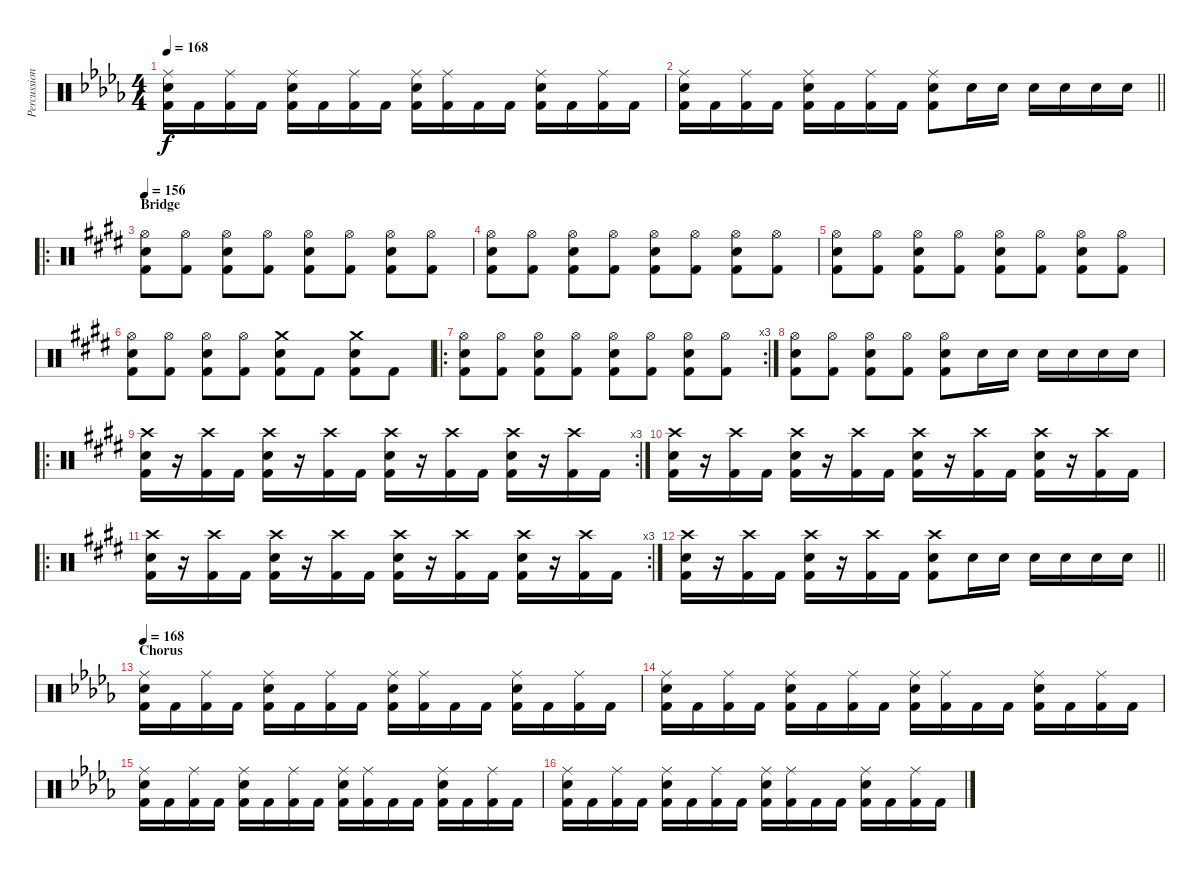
\track ("Percussion" "Percussion") {instrument percussion}
\staff {score}
\articulation defaults
\ts (4 4)
\tempo 168
\clef neutral
\ks db
("Ride (middle)" "Snare (hit) 2" "Kick (hit) 2").16{dy f} "Kick (hit) 2".16 ("Ride (middle)" "Kick (hit) 2").16 "Kick (hit) 2".16 ("Ride (middle)" "Snare (hit) 2" "Kick (hit) 2").16 "Kick (hit) 2".16 ("Ride (middle)" "Kick (hit) 2").16 "Kick (hit) 2".16 ("Ride (middle)" "Snare (hit) 2" "Kick (hit) 2").16 ("Ride (middle)" "Kick (hit) 2").16 "Kick (hit) 2".16 "Kick (hit) 2".16 ("Ride (middle)" "Snare (hit) 2" "Kick (hit) 2").16 "Kick (hit) 2".16 ("Ride (middle)" "Kick (hit) 2").16 "Kick (hit) 2".16 |
\barLineRight lightlight
("Ride (middle)" "Snare (hit) 2" "Kick (hit) 2").16 "Kick (hit) 2".16 ("Ride (middle)" "Kick (hit) 2").16 "Kick (hit) 2".16 ("Ride (middle)" "Snare (hit) 2" "Kick (hit) 2").16 "Kick (hit) 2".16 ("Ride (middle)" "Kick (hit) 2").16 "Kick (hit) 2".16 ("Ride (middle)" "Snare (hit) 2" "Kick (hit) 2").8 "Snare (hit) 2".16 "Snare (hit) 2".16 "Snare (hit) 2".16 "Snare (hit) 2".16 "Snare (hit) 2".16 "Snare (hit) 2".16 |
\ro
\section ("" "Bridge")
\tempo 156
\ks c#minor
("Hi-Hat (open)" "Snare (hit) 2" "Kick (hit) 2").8 ("Hi-Hat (open)" "Kick (hit) 2").8 ("Hi-Hat (open)" "Snare (hit) 2" "Kick (hit) 2").8 ("Hi-Hat (open)" "Kick (hit) 2").8 ("Hi-Hat (open)" "Snare (hit) 2" "Kick (hit) 2").8 ("Hi-Hat (open)" "Kick (hit) 2").8 ("Hi-Hat (open)" "Snare (hit) 2" "Kick (hit) 2").8 ("Hi-Hat (open)" "Kick (hit) 2").8 |
("Hi-Hat (open)" "Snare (hit) 2" "Kick (hit) 2").8 ("Hi-Hat (open)" "Kick (hit) 2").8 ("Hi-Hat (open)" "Snare (hit) 2" "Kick (hit) 2").8 ("Hi-Hat (open)" "Kick (hit) 2").8 ("Hi-Hat (open)" "Snare (hit) 2" "Kick (hit) 2").8 ("Hi-Hat (open)" "Kick (hit) 2").8 ("Hi-Hat (open)" "Snare (hit) 2" "Kick (hit) 2").8 ("Hi-Hat (open)" "Kick (hit) 2").8 |
("Hi-Hat (open)" "Snare (hit) 2" "Kick (hit) 2").8 ("Hi-Hat (open)" "Kick (hit) 2").8 ("Hi-Hat (open)" "Snare (hit) 2" "Kick (hit) 2").8 ("Hi-Hat (open)" "Kick (hit) 2").8 ("Hi-Hat (open)" "Snare (hit) 2" "Kick (hit) 2").8 ("Hi-Hat (open)" "Kick (hit) 2").8 ("Hi-Hat (open)" "Snare (hit) 2" "Kick (hit) 2").8 ("Hi-Hat (open)" "Kick (hit) 2").8 |
("Hi-Hat (open)" "Snare (hit) 2" "Kick (hit) 2").8 ("Hi-Hat (open)" "Kick (hit) 2").8 ("Hi-Hat (open)" "Snare (hit) 2" "Kick (hit) 2").8 ("Hi-Hat (open)" "Kick (hit) 2").8 ("Crash medium (hit)" "Snare (hit) 2" "Kick (hit) 2").8 "Kick (hit) 2".8 ("Crash medium (hit)" "Snare (hit) 2" "Kick (hit) 2").8 "Kick (hit) 2".8 |
\ro
\rc 3
("Hi-Hat (open)" "Snare (hit) 2" "Kick (hit) 2").8 ("Hi-Hat (open)" "Kick (hit) 2").8 ("Hi-Hat (open)" "Snare (hit) 2" "Kick (hit) 2").8 ("Hi-Hat (open)" "Kick (hit) 2").8 ("Hi-Hat (open)" "Snare (hit) 2" "Kick (hit) 2").8 ("Hi-Hat (open)" "Kick (hit) 2").8 ("Hi-Hat (open)" "Snare (hit) 2" "Kick (hit) 2").8 ("Hi-Hat (open)" "Kick (hit) 2").8 |
("Hi-Hat (open)" "Snare (hit) 2" "Kick (hit) 2").8 ("Hi-Hat (open)" "Kick (hit) 2").8 ("Hi-Hat (open)" "Snare (hit) 2" "Kick (hit) 2").8 ("Hi-Hat (open)" "Kick (hit) 2").8 ("Hi-Hat (open)" "Snare (hit) 2" "Kick (hit) 2").8 "Snare (hit) 2".16 "Snare (hit) 2".16 "Snare (hit) 2".16 "Snare (hit) 2".16 "Snare (hit) 2".16 "Snare (hit) 2".16 |
\ro
\rc 3
("Crash high (hit)" "Snare (hit) 2" "Kick (hit) 2").16 r.16 ("Crash high (hit)" "Kick (hit) 2").16 "Kick (hit) 2".16 ("Crash high (hit)" "Snare (hit) 2" "Kick (hit) 2").16 r.16 ("Crash high (hit)" "Kick (hit) 2").16 "Kick (hit) 2".16 ("Crash high (hit)" "Snare (hit) 2" "Kick (hit) 2").16 r.16 ("Crash high (hit)" "Kick (hit) 2").16 "Kick (hit) 2".16 ("Crash high (hit)" "Snare (hit) 2" "Kick (hit) 2").16 r.16 ("Crash high (hit)" "Kick (hit) 2").16 "Kick (hit) 2".16 |
("Crash high (hit)" "Snare (hit) 2" "Kick (hit) 2").16 r.16 ("Crash high (hit)" "Kick (hit) 2").16 "Kick (hit) 2".16 ("Crash high (hit)" "Snare (hit) 2" "Kick (hit) 2").16 r.16 ("Crash high (hit)" "Kick (hit) 2").16 "Kick (hit) 2".16 ("Crash high (hit)" "Snare (hit) 2" "Kick (hit) 2").16 r.16 ("Crash high (hit)" "Kick (hit) 2").16 "Kick (hit) 2".16 ("Crash high (hit)" "Snare (hit) 2" "Kick (hit) 2").16 r.16 ("Crash high (hit)" "Kick (hit) 2").16 "Kick (hit) 2".16 |
\ro
\rc 3
("Crash high (hit)" "Snare (hit) 2" "Kick (hit) 2").16 r.16 ("Crash high (hit)" "Kick (hit) 2").16 "Kick (hit) 2".16 ("Crash high (hit)" "Snare (hit) 2" "Kick (hit) 2").16 r.16 ("Crash high (hit)" "Kick (hit) 2").16 "Kick (hit) 2".16 ("Crash high (hit)" "Snare (hit) 2" "Kick (hit) 2").16 r.16 ("Crash high (hit)" "Kick (hit) 2").16 "Kick (hit) 2".16 ("Crash high (hit)" "Snare (hit) 2" "Kick (hit) 2").16 r.16 ("Crash high (hit)" "Kick (hit) 2").16 "Kick (hit) 2".16 |
\barLineRight lightlight
("Crash high (hit)" "Snare (hit) 2" "Kick (hit) 2").16 r.16 ("Crash high (hit)" "Kick (hit) 2").16 "Kick (hit) 2".16 ("Crash high (hit)" "Snare (hit) 2" "Kick (hit) 2").16 r.16 ("Crash high (hit)" "Kick (hit) 2").16 "Kick (hit) 2".16 ("Crash high (hit)" "Snare (hit) 2" "Kick (hit) 2").8 "Snare (hit) 2".16 "Snare (hit) 2".16 "Snare (hit) 2".16 "Snare (hit) 2".16 "Snare (hit) 2".16 "Snare (hit) 2".16 |
\section ("" "Chorus")
\tempo 168
\ks db
("Ride (middle)" "Snare (hit) 2" "Kick (hit) 2").16 "Kick (hit) 2".16 ("Ride (middle)" "Kick (hit) 2").16 "Kick (hit) 2".16 ("Ride (middle)" "Snare (hit) 2" "Kick (hit) 2").16 "Kick (hit) 2".16 ("Ride (middle)" "Kick (hit) 2").16 "Kick (hit) 2".16 ("Ride (middle)" "Snare (hit) 2" "Kick (hit) 2").16 ("Ride (middle)" "Kick (hit) 2").16 "Kick (hit) 2".16 "Kick (hit) 2".16 ("Ride (middle)" "Snare (hit) 2" "Kick (hit) 2").16 "Kick (hit) 2".16 ("Ride (middle)" "Kick (hit) 2").16 "Kick (hit) 2".16 |
("Ride (middle)" "Snare (hit) 2" "Kick (hit) 2").16 "Kick (hit) 2".16 ("Ride (middle)" "Kick (hit) 2").16 "Kick (hit) 2".16 ("Ride (middle)" "Snare (hit) 2" "Kick (hit) 2").16 "Kick (hit) 2".16 ("Ride (middle)" "Kick (hit) 2").16 "Kick (hit) 2".16 ("Ride (middle)" "Snare (hit) 2" "Kick (hit) 2").16 ("Ride (middle)" "Kick (hit) 2").16 "Kick (hit) 2".16 "Kick (hit) 2".16 ("Ride (middle)" "Snare (hit) 2" "Kick (hit) 2").16 "Kick (hit) 2".16 ("Ride (middle)" "Kick (hit) 2").16 "Kick (hit) 2".16 |
("Ride (middle)" "Snare (hit) 2" "Kick (hit) 2").16 "Kick (hit) 2".16 ("Ride (middle)" "Kick (hit) 2").16 "Kick (hit) 2".16 ("Ride (middle)" "Snare (hit) 2" "Kick (hit) 2").16 "Kick (hit) 2".16 ("Ride (middle)" "Kick (hit) 2").16 "Kick (hit) 2".16 ("Ride (middle)" "Snare (hit) 2" "Kick (hit) 2").16 ("Ride (middle)" "Kick (hit) 2").16 "Kick (hit) 2".16 "Kick (hit) 2".16 ("Ride (middle)" "Snare (hit) 2" "Kick (hit) 2").16 "Kick (hit) 2".16 ("Ride (middle)" "Kick (hit) 2").16 "Kick (hit) 2".16 |
("Ride (middle)" "Snare (hit) 2" "Kick (hit) 2").16 "Kick (hit) 2".16 ("Ride (middle)" "Kick (hit) 2").16 "Kick (hit) 2".16 ("Ride (middle)" "Snare (hit) 2" "Kick (hit) 2").16 "Kick (hit) 2".16 ("Ride (middle)" "Kick (hit) 2").16 "Kick (hit) 2".16 ("Ride (middle)" "Snare (hit) 2" "Kick (hit) 2").16 ("Ride (middle)" "Kick (hit) 2").16 "Kick (hit) 2".16 "Kick (hit) 2".16 ("Ride (middle)" "Snare (hit) 2" "Kick (hit) 2").16 "Kick (hit) 2".16 ("Ride (middle)" "Kick (hit) 2").16 "Kick (hit) 2".16
